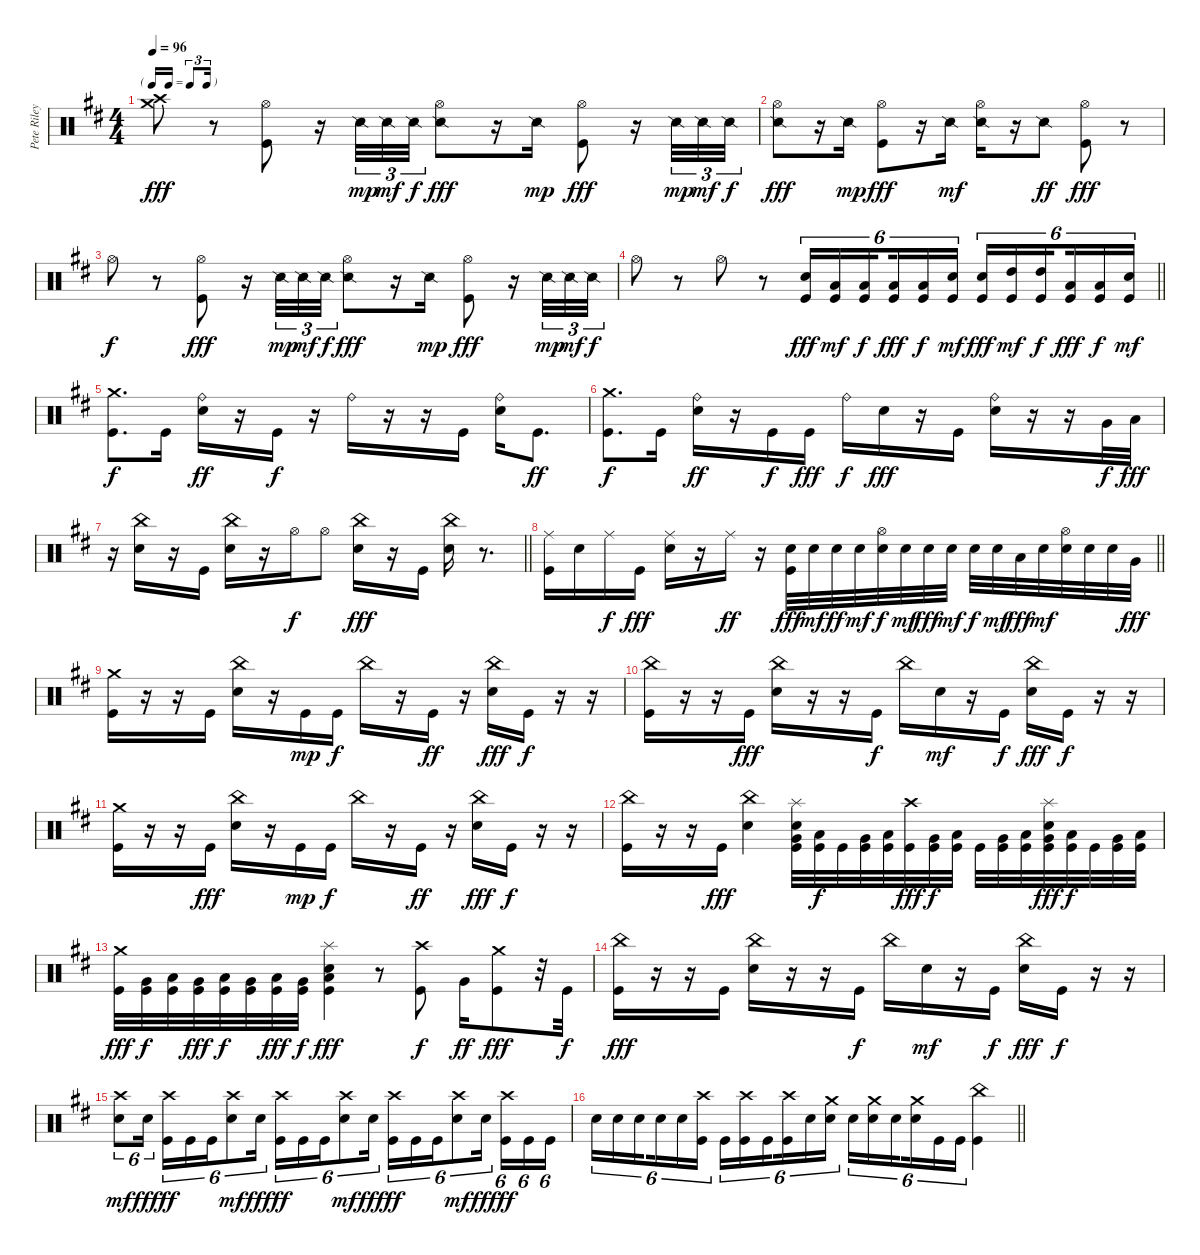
\track ("Pete Riley" "Pete Riley") {instrument percussion}
\staff {score}
\articulation defaults
\ts (4 4)
\tf triplet16th
\tempo 96
\clef neutral
\ks d
("Crash high (hit)" "Crash medium (hit)").8{dy fff} r.8 ("Hi-Hat (open)" "Kick (hit)").8 r.16 "Snare (side stick) 2".32{tu (3 2) dy mp} "Snare (side stick) 2".32{tu (3 2) dy mf} "Snare (side stick) 2".32{tu (3 2) dy f} ("Hi-Hat (open)" "Snare (side stick) 2").8{dy fff} r.16 "Snare (side stick) 2".16{dy mp} ("Hi-Hat (open)" "Kick (hit)").8{dy fff} r.16 "Snare (side stick) 2".32{tu (3 2) dy mp} "Snare (side stick) 2".32{tu (3 2) dy mf} "Snare (side stick) 2".32{tu (3 2) dy f} |
("Hi-Hat (open)" "Snare (side stick) 2").8{dy fff} r.16 "Snare (side stick) 2".16{dy mp} ("Hi-Hat (open)" "Kick (hit)").8{dy fff} r.16 "Snare (side stick) 2".16{dy mf} ("Hi-Hat (open)" "Snare (side stick) 2").16 r.16 "Snare (side stick) 2".8{dy ff} ("Hi-Hat (open)" "Kick (hit)").8{dy fff} r.8 |
"Hi-Hat (open)".8{dy f} r.8 ("Hi-Hat (open)" "Kick (hit)").8{dy fff} r.16 "Snare (side stick) 2".32{tu (3 2) dy mp} "Snare (side stick) 2".32{tu (3 2) dy mf} "Snare (side stick) 2".32{tu (3 2) dy f} ("Hi-Hat (open)" "Snare (side stick) 2").8{dy fff} r.16 "Snare (side stick) 2".16{dy mp} ("Hi-Hat (open)" "Kick (hit)").8{dy fff} r.16 "Snare (side stick) 2".32{tu (3 2) dy mp} "Snare (side stick) 2".32{tu (3 2) dy mf} "Snare (side stick) 2".32{tu (3 2) dy f} |
\barLineRight lightlight "Hi-Hat (open)".8
r.8 "Hi-Hat (open)".8 r.8 ("Electric Snare (hit)" "Kick (hit)").16{tu (6 4) dy fff} ("Low Tom (hit)" "Kick (hit)").16{tu (6 4) dy mf} ("Low Tom (hit)" "Kick (hit)").16{tu (6 4) dy f beam splitsecondary} ("Low Floor Tom (hit)" "Kick (hit)").16{tu (6 4) dy fff} ("Low Floor Tom (hit)" "Kick (hit)").16{tu (6 4) dy f} ("Electric Snare (hit)" "Kick (hit)").16{tu (6 4) dy mf} ("Electric Snare (hit)" "Kick (hit)").16{tu (6 4) dy fff} ("High Tom (hit)" "Kick (hit)").16{tu (6 4) dy mf} ("High Tom (hit)" "Kick (hit)").16{tu (6 4) dy f beam splitsecondary} ("Low Tom (hit)" "Kick (hit)").16{tu (6 4) dy fff} ("Low Tom (hit)" "Kick (hit)").16{tu (6 4) dy f} ("Electric Snare (hit)" "Kick (hit)").16{tu (6 4) dy mf} |
("Crash medium (hit)" "Kick (hit)").8{d dy f} "Kick (hit)".16 ("Ride (bell)" "Electric Snare (hit)").16{dy ff} r.16 "Kick (hit)".16{dy f} r.16 "Ride (bell)".16 r.16 r.16 "Kick (hit)".16 ("Ride (bell)" "Electric Snare (hit)").16 "Kick (hit)".8{d dy ff} |
("Crash medium (hit)" "Kick (hit)").8{d dy f} "Kick (hit)".16 ("Ride (bell)" "Electric Snare (hit)").16{dy ff} r.16 "Kick (hit)".16{dy f} "Kick (hit)".16{dy fff} "Ride (bell)".16{dy f} "Electric Snare (hit)".16{dy fff} r.16 "Kick (hit)".16 ("Ride (bell)" "Electric Snare (hit)").16 r.16 r.16 "Very Low Tom (hit)".32{dy f} "Low Floor Tom (hit)".32{dy fff} |
\barLineRight lightlight
r.16 ("China (hit)" "Electric Snare (hit)").16 r.16 "Kick (hit)".16 ("China (hit)" "Electric Snare (hit)").16 r.16 "Hi-Hat (open)".16{dy f} "Hi-Hat (open)".8 ("China (hit)" "Electric Snare (hit)").16{dy fff} r.16 "Kick (hit)".16 ("China (hit)" "Electric Snare (hit)").16 r.8{d} |
\section ("" "")
\barLineRight lightlight
("Ride (middle)" "Kick (hit)").16 "Electric Snare (hit)".16 "Ride (middle)".16{dy f} "Kick (hit)".16{dy fff} ("Ride (middle)" "Electric Snare (hit)").16 r.16 "Ride (middle)".16{dy ff} r.16 ("Electric Snare (hit)" "Kick (hit)").32{dy fff} "Electric Snare (hit)".32{dy mf} "Electric Snare (hit)".32{dy ff} "Electric Snare (hit)".32{dy mf} ("Hi-Hat (open)" "Electric Snare (hit)").32{dy f} "Electric Snare (hit)".32{dy mf} "Electric Snare (hit)".32{dy fff} "Electric Snare (hit)".32{dy mf} "Electric Snare (hit)".32{dy f} "Electric Snare (hit)".32{dy mf} "Low Tom (hit)".32{dy fff} "Electric Snare (hit)".32{dy mf} ("Hi-Hat (open)" "Electric Snare (hit)").32 "Electric Snare (hit)".32 "Electric Snare (hit)".32 "Very Low Tom (hit)".32{dy fff} |
("Crash medium (hit)" "Kick (hit)").16 r.16 r.16 "Kick (hit)".16 ("China (hit)" "Electric Snare (hit)").16 r.16 "Kick (hit)".16{dy mp} "Kick (hit)".16{dy f} "China (hit)".16 r.16 "Kick (hit)".16{dy ff} r.16 ("China (hit)" "Electric Snare (hit)").16{dy fff} "Kick (hit)".16{dy f} r.16 r.16 |
("China (hit)" "Kick (hit)").16 r.16 r.16 "Kick (hit)".16{dy fff} ("China (hit)" "Electric Snare (hit)").16 r.16 r.16 "Kick (hit)".16{dy f} "China (hit)".16 "Electric Snare (hit)".16{dy mf} r.16 "Kick (hit)".16{dy f} ("China (hit)" "Electric Snare (hit)").16{dy fff} "Kick (hit)".16{dy f} r.16 r.16 |
("Crash medium (hit)" "Kick (hit)").16 r.16 r.16 "Kick (hit)".16{dy fff} ("China (hit)" "Electric Snare (hit)").16 r.16 "Kick (hit)".16{dy mp} "Kick (hit)".16{dy f} "China (hit)".16 r.16 "Kick (hit)".16{dy ff} r.16 ("China (hit)" "Electric Snare (hit)").16{dy fff} "Kick (hit)".16{dy f} r.16 r.16 |
("China (hit)" "Kick (hit)").16 r.16 r.16 "Kick (hit)".16{dy fff} ("China (hit)" "Electric Snare (hit)").4 ("Splash (hit)" "Electric Snare (hit)" "Very Low Tom (hit)" "Kick (hit)").32 ("Low Floor Tom (hit)" "Kick (hit)").32{dy f} "Kick (hit)".32 ("Very Low Tom (hit)" "Kick (hit)").32 ("Low Floor Tom (hit)" "Kick (hit)").32 ("Crash high (hit)" "Kick (hit)").32{dy fff} ("Very Low Tom (hit)" "Kick (hit)").32{dy f} ("Low Floor Tom (hit)" "Kick (hit)").32 "Kick (hit)".32 ("Very Low Tom (hit)" "Kick (hit)").32 ("Low Floor Tom (hit)" "Kick (hit)").32 ("Splash (hit)" "Electric Snare (hit)" "Very Low Tom (hit)" "Kick (hit)").32{dy fff} ("Low Floor Tom (hit)" "Kick (hit)").32{dy f} "Kick (hit)".32 ("Very Low Tom (hit)" "Kick (hit)").32 ("Low Floor Tom (hit)" "Kick (hit)").32 |
("Crash medium (hit)" "Kick (hit)").32{dy fff} ("Very Low Tom (hit)" "Kick (hit)").32{dy f} ("Low Floor Tom (hit)" "Kick (hit)").32 ("Very Low Tom (hit)" "Kick (hit)").32{dy fff} ("Low Floor Tom (hit)" "Kick (hit)").32{dy f} ("Very Low Tom (hit)" "Kick (hit)").32 ("Low Floor Tom (hit)" "Kick (hit)").32{dy fff} ("Very Low Tom (hit)" "Kick (hit)").32{dy f} ("Splash (hit)" "Electric Snare (hit)" "Low Floor Tom (hit)" "Kick (hit)").4{dy fff} r.8 ("Crash high (hit)" "Kick (hit)").8{dy f} "Very Low Tom (hit)".16{dy ff} ("Crash medium (hit)" "Kick (hit)").8{dy fff} r.32 "Kick (hit)".32{dy f} |
("China (hit)" "Kick (hit)").16{dy fff} r.16 r.16 "Kick (hit)".16 ("China (hit)" "Electric Snare (hit)").16 r.16 r.16 "Kick (hit)".16{dy f} "China (hit)".16 "Electric Snare (hit)".16{dy mf} r.16 "Kick (hit)".16{dy f} ("China (hit)" "Electric Snare (hit)").16{dy fff} "Kick (hit)".16{dy f} r.16 r.16 |
("Crash high (hit)" "Electric Snare (hit)").8{tu (6 4) dy mf} "Electric Snare (hit)".16{tu (6 4) dy fff beam splitsecondary} ("Crash high (hit)" "Kick (hit)").16{tu (6 4) dy ff} "Kick (hit)".16{tu (6 4)} "Kick (hit)".16{tu (6 4)} ("Crash high (hit)" "Electric Snare (hit)").8{tu (6 4) dy mf} "Electric Snare (hit)".16{tu (6 4) dy fff beam splitsecondary} ("Crash high (hit)" "Kick (hit)").16{tu (6 4) dy ff} "Kick (hit)".16{tu (6 4)} "Kick (hit)".16{tu (6 4)} ("Crash high (hit)" "Electric Snare (hit)").8{tu (6 4) dy mf} "Electric Snare (hit)".16{tu (6 4) dy fff beam splitsecondary} ("Crash high (hit)" "Kick (hit)").16{tu (6 4) dy ff} "Kick (hit)".16{tu (6 4)} "Kick (hit)".16{tu (6 4)} ("Crash high (hit)" "Electric Snare (hit)").8{tu (6 4) dy mf} "Electric Snare (hit)".16{tu (6 4) dy fff beam splitsecondary} ("Crash high (hit)" "Kick (hit)").16{tu (6 4) dy ff} "Kick (hit)".16{tu (6 4)} "Kick (hit)".16{tu (6 4)} |
\barLineRight lightlight "Electric Snare (hit)".16{tu (6 4)} "Electric Snare (hit)".16{tu (6 4)} "Electric Snare (hit)".16{tu (6 4) beam splitsecondary} "Electric Snare (hit)".16{tu (6 4)} "Electric Snare (hit)".16{tu (6 4)}
("Crash high (hit)" "Kick (hit)").16{tu (6 4)} "Kick (hit)".16{tu (6 4)} ("Crash high (hit)" "Kick (hit)").16{tu (6 4)} "Kick (hit)".16{tu (6 4) beam splitsecondary} ("Crash high (hit)" "Kick (hit)").16{tu (6 4)} "Electric Snare (hit)".16{tu (6 4)} ("Crash medium (hit)" "Electric Snare (hit)").16{tu (6 4)} "Electric Snare (hit)".16{tu (6 4)} ("Crash medium (hit)" "Electric Snare (hit)").16{tu (6 4)} "Electric Snare (hit)".16{tu (6 4) beam splitsecondary} ("Crash medium (hit)" "Electric Snare (hit)").16{tu (6 4)} "Kick (hit)".16{tu (6 4)} "Kick (hit)".16{tu (6 4)} ("China (hit)" "Kick (hit)").4
